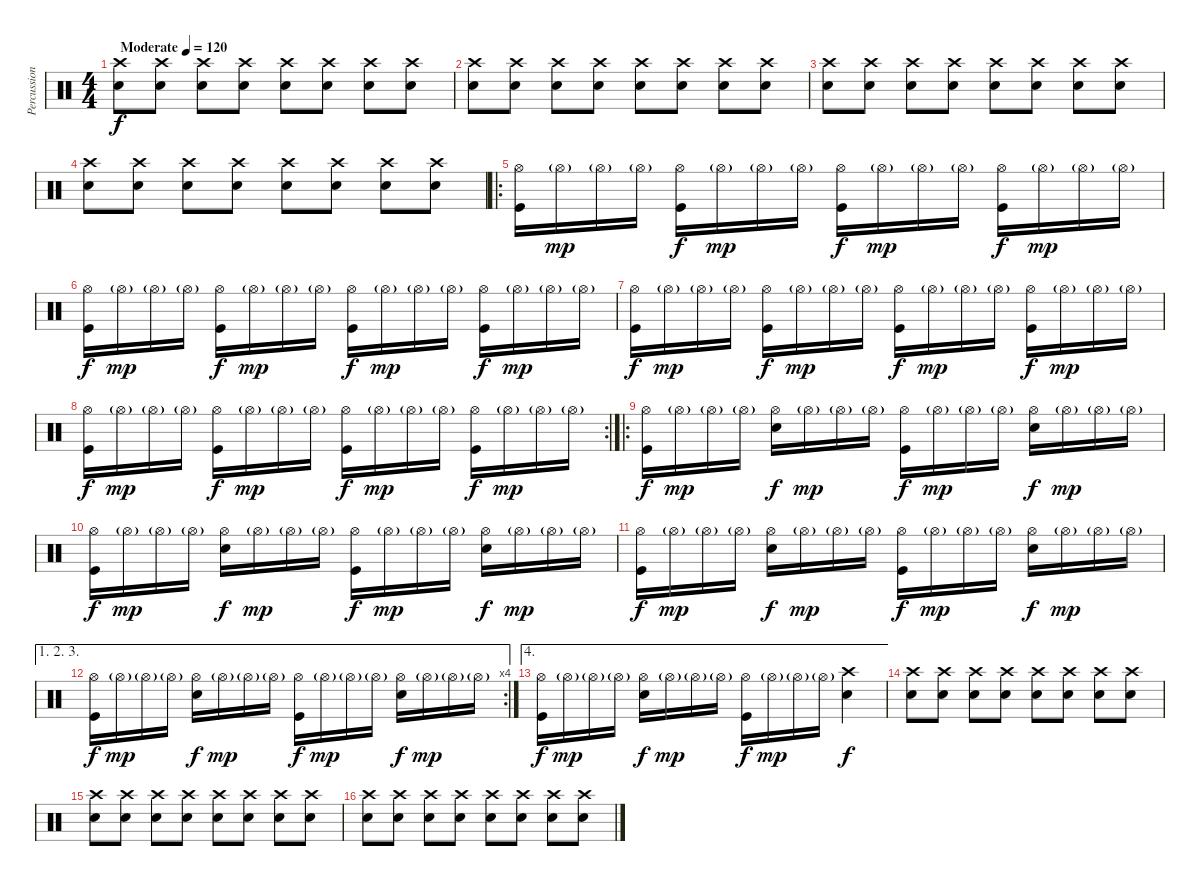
\track ("Percussion" "Percussion") {instrument percussion}
\staff {score}
\articulation defaults
\ts (4 4)
\tempo (120 "Moderate")
\clef neutral
\ks c
("Crash high (hit)" "Electric Snare (hit)").8{dy f} ("Crash high (hit)" "Electric Snare (hit)").8 ("Crash high (hit)" "Electric Snare (hit)").8 ("Crash high (hit)" "Electric Snare (hit)").8 ("Crash high (hit)" "Electric Snare (hit)").8 ("Crash high (hit)" "Electric Snare (hit)").8 ("Crash high (hit)" "Electric Snare (hit)").8 ("Crash high (hit)" "Electric Snare (hit)").8 |
("Crash high (hit)" "Electric Snare (hit)").8 ("Crash high (hit)" "Electric Snare (hit)").8 ("Crash high (hit)" "Electric Snare (hit)").8 ("Crash high (hit)" "Electric Snare (hit)").8 ("Crash high (hit)" "Electric Snare (hit)").8 ("Crash high (hit)" "Electric Snare (hit)").8 ("Crash high (hit)" "Electric Snare (hit)").8 ("Crash high (hit)" "Electric Snare (hit)").8 |
("Crash high (hit)" "Electric Snare (hit)").8 ("Crash high (hit)" "Electric Snare (hit)").8 ("Crash high (hit)" "Electric Snare (hit)").8 ("Crash high (hit)" "Electric Snare (hit)").8 ("Crash high (hit)" "Electric Snare (hit)").8 ("Crash high (hit)" "Electric Snare (hit)").8 ("Crash high (hit)" "Electric Snare (hit)").8 ("Crash high (hit)" "Electric Snare (hit)").8 |
("Crash high (hit)" "Electric Snare (hit)").8 ("Crash high (hit)" "Electric Snare (hit)").8 ("Crash high (hit)" "Electric Snare (hit)").8 ("Crash high (hit)" "Electric Snare (hit)").8 ("Crash high (hit)" "Electric Snare (hit)").8 ("Crash high (hit)" "Electric Snare (hit)").8 ("Crash high (hit)" "Electric Snare (hit)").8 ("Crash high (hit)" "Electric Snare (hit)").8 |
\ro
("Hi-Hat (open)" "Kick (hit)").16 "Hi-Hat (open)"{g}.16{dy mp} "Hi-Hat (open)"{g}.16 "Hi-Hat (open)"{g}.16 ("Hi-Hat (open)" "Kick (hit)").16{dy f} "Hi-Hat (open)"{g}.16{dy mp} "Hi-Hat (open)"{g}.16 "Hi-Hat (open)"{g}.16 ("Hi-Hat (open)" "Kick (hit)").16{dy f} "Hi-Hat (open)"{g}.16{dy mp} "Hi-Hat (open)"{g}.16 "Hi-Hat (open)"{g}.16 ("Hi-Hat (open)" "Kick (hit)").16{dy f} "Hi-Hat (open)"{g}.16{dy mp} "Hi-Hat (open)"{g}.16 "Hi-Hat (open)"{g}.16 |
("Hi-Hat (open)" "Kick (hit)").16{dy f} "Hi-Hat (open)"{g}.16{dy mp} "Hi-Hat (open)"{g}.16 "Hi-Hat (open)"{g}.16 ("Hi-Hat (open)" "Kick (hit)").16{dy f} "Hi-Hat (open)"{g}.16{dy mp} "Hi-Hat (open)"{g}.16 "Hi-Hat (open)"{g}.16 ("Hi-Hat (open)" "Kick (hit)").16{dy f} "Hi-Hat (open)"{g}.16{dy mp} "Hi-Hat (open)"{g}.16 "Hi-Hat (open)"{g}.16 ("Hi-Hat (open)" "Kick (hit)").16{dy f} "Hi-Hat (open)"{g}.16{dy mp} "Hi-Hat (open)"{g}.16 "Hi-Hat (open)"{g}.16 |
("Hi-Hat (open)" "Kick (hit)").16{dy f} "Hi-Hat (open)"{g}.16{dy mp} "Hi-Hat (open)"{g}.16 "Hi-Hat (open)"{g}.16 ("Hi-Hat (open)" "Kick (hit)").16{dy f} "Hi-Hat (open)"{g}.16{dy mp} "Hi-Hat (open)"{g}.16 "Hi-Hat (open)"{g}.16 ("Hi-Hat (open)" "Kick (hit)").16{dy f} "Hi-Hat (open)"{g}.16{dy mp} "Hi-Hat (open)"{g}.16 "Hi-Hat (open)"{g}.16 ("Hi-Hat (open)" "Kick (hit)").16{dy f} "Hi-Hat (open)"{g}.16{dy mp} "Hi-Hat (open)"{g}.16 "Hi-Hat (open)"{g}.16 |
\rc 2
("Hi-Hat (open)" "Kick (hit)").16{dy f} "Hi-Hat (open)"{g}.16{dy mp} "Hi-Hat (open)"{g}.16 "Hi-Hat (open)"{g}.16 ("Hi-Hat (open)" "Kick (hit)").16{dy f} "Hi-Hat (open)"{g}.16{dy mp} "Hi-Hat (open)"{g}.16 "Hi-Hat (open)"{g}.16 ("Hi-Hat (open)" "Kick (hit)").16{dy f} "Hi-Hat (open)"{g}.16{dy mp} "Hi-Hat (open)"{g}.16 "Hi-Hat (open)"{g}.16 ("Hi-Hat (open)" "Kick (hit)").16{dy f} "Hi-Hat (open)"{g}.16{dy mp} "Hi-Hat (open)"{g}.16 "Hi-Hat (open)"{g}.16 |
\ro
("Hi-Hat (open)" "Kick (hit)").16{dy f} "Hi-Hat (open)"{g}.16{dy mp} "Hi-Hat (open)"{g}.16 "Hi-Hat (open)"{g}.16 ("Hi-Hat (open)" "Electric Snare (hit)").16{dy f} "Hi-Hat (open)"{g}.16{dy mp} "Hi-Hat (open)"{g}.16 "Hi-Hat (open)"{g}.16 ("Hi-Hat (open)" "Kick (hit)").16{dy f} "Hi-Hat (open)"{g}.16{dy mp} "Hi-Hat (open)"{g}.16 "Hi-Hat (open)"{g}.16 ("Hi-Hat (open)" "Electric Snare (hit)").16{dy f} "Hi-Hat (open)"{g}.16{dy mp} "Hi-Hat (open)"{g}.16 "Hi-Hat (open)"{g}.16 |
("Hi-Hat (open)" "Kick (hit)").16{dy f} "Hi-Hat (open)"{g}.16{dy mp} "Hi-Hat (open)"{g}.16 "Hi-Hat (open)"{g}.16 ("Hi-Hat (open)" "Electric Snare (hit)").16{dy f} "Hi-Hat (open)"{g}.16{dy mp} "Hi-Hat (open)"{g}.16 "Hi-Hat (open)"{g}.16 ("Hi-Hat (open)" "Kick (hit)").16{dy f} "Hi-Hat (open)"{g}.16{dy mp} "Hi-Hat (open)"{g}.16 "Hi-Hat (open)"{g}.16 ("Hi-Hat (open)" "Electric Snare (hit)").16{dy f} "Hi-Hat (open)"{g}.16{dy mp} "Hi-Hat (open)"{g}.16 "Hi-Hat (open)"{g}.16 |
("Hi-Hat (open)" "Kick (hit)").16{dy f} "Hi-Hat (open)"{g}.16{dy mp} "Hi-Hat (open)"{g}.16 "Hi-Hat (open)"{g}.16 ("Hi-Hat (open)" "Electric Snare (hit)").16{dy f} "Hi-Hat (open)"{g}.16{dy mp} "Hi-Hat (open)"{g}.16 "Hi-Hat (open)"{g}.16 ("Hi-Hat (open)" "Kick (hit)").16{dy f} "Hi-Hat (open)"{g}.16{dy mp} "Hi-Hat (open)"{g}.16 "Hi-Hat (open)"{g}.16 ("Hi-Hat (open)" "Electric Snare (hit)").16{dy f} "Hi-Hat (open)"{g}.16{dy mp} "Hi-Hat (open)"{g}.16 "Hi-Hat (open)"{g}.16 |
\ae (1 2 3)
\rc 4
("Hi-Hat (open)" "Kick (hit)").16{dy f} "Hi-Hat (open)"{g}.16{dy mp} "Hi-Hat (open)"{g}.16 "Hi-Hat (open)"{g}.16 ("Hi-Hat (open)" "Electric Snare (hit)").16{dy f} "Hi-Hat (open)"{g}.16{dy mp} "Hi-Hat (open)"{g}.16 "Hi-Hat (open)"{g}.16 ("Hi-Hat (open)" "Kick (hit)").16{dy f} "Hi-Hat (open)"{g}.16{dy mp} "Hi-Hat (open)"{g}.16 "Hi-Hat (open)"{g}.16 ("Hi-Hat (open)" "Electric Snare (hit)").16{dy f} "Hi-Hat (open)"{g}.16{dy mp} "Hi-Hat (open)"{g}.16 "Hi-Hat (open)"{g}.16 |
\ae 4
("Hi-Hat (open)" "Kick (hit)").16{dy f} "Hi-Hat (open)"{g}.16{dy mp} "Hi-Hat (open)"{g}.16 "Hi-Hat (open)"{g}.16 ("Hi-Hat (open)" "Electric Snare (hit)").16{dy f} "Hi-Hat (open)"{g}.16{dy mp} "Hi-Hat (open)"{g}.16 "Hi-Hat (open)"{g}.16 ("Hi-Hat (open)" "Kick (hit)").16{dy f} "Hi-Hat (open)"{g}.16{dy mp} "Hi-Hat (open)"{g}.16 "Hi-Hat (open)"{g}.16 ("Crash high (hit)" "Electric Snare (hit)").4{dy f} |
("Crash high (hit)" "Electric Snare (hit)").8 ("Crash high (hit)" "Electric Snare (hit)").8 ("Crash high (hit)" "Electric Snare (hit)").8 ("Crash high (hit)" "Electric Snare (hit)").8 ("Crash high (hit)" "Electric Snare (hit)").8 ("Crash high (hit)" "Electric Snare (hit)").8 ("Crash high (hit)" "Electric Snare (hit)").8 ("Crash high (hit)" "Electric Snare (hit)").8 |
("Crash high (hit)" "Electric Snare (hit)").8 ("Crash high (hit)" "Electric Snare (hit)").8 ("Crash high (hit)" "Electric Snare (hit)").8 ("Crash high (hit)" "Electric Snare (hit)").8 ("Crash high (hit)" "Electric Snare (hit)").8 ("Crash high (hit)" "Electric Snare (hit)").8 ("Crash high (hit)" "Electric Snare (hit)").8 ("Crash high (hit)" "Electric Snare (hit)").8 |
("Crash high (hit)" "Electric Snare (hit)").8 ("Crash high (hit)" "Electric Snare (hit)").8 ("Crash high (hit)" "Electric Snare (hit)").8 ("Crash high (hit)" "Electric Snare (hit)").8 ("Crash high (hit)" "Electric Snare (hit)").8 ("Crash high (hit)" "Electric Snare (hit)").8 ("Crash high (hit)" "Electric Snare (hit)").8 ("Crash high (hit)" "Electric Snare (hit)").8
